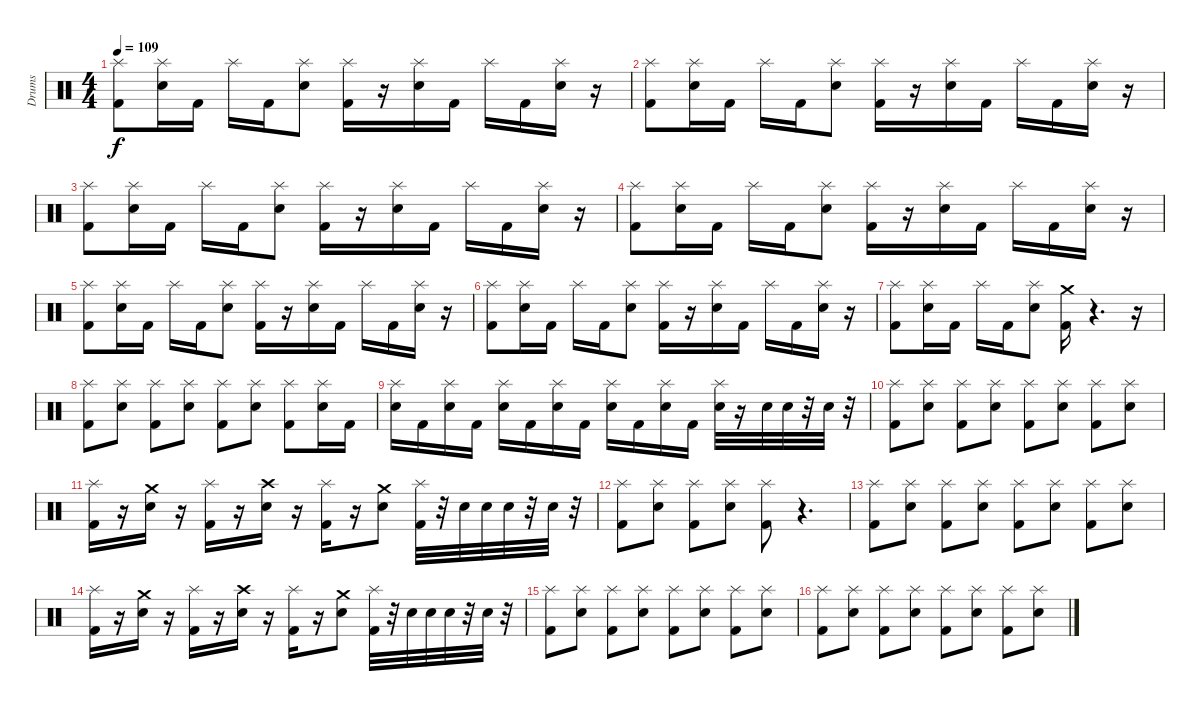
\track ("Drums" "Drums") {instrument percussion}
\staff {score}
\articulation defaults
\ts (4 4)
\tempo 109
\clef neutral
\ks c
("Splash (hit)" "Kick (hit) 2").8{dy f} ("Splash (hit)" "Electric Snare (hit)").16 "Kick (hit) 2".16 "Splash (hit)".16 "Kick (hit) 2".16 ("Splash (hit)" "Electric Snare (hit)").8 ("Splash (hit)" "Kick (hit) 2").16 r.16 ("Splash (hit)" "Electric Snare (hit)").16 "Kick (hit) 2".16 "Splash (hit)".16 "Kick (hit) 2".16 ("Splash (hit)" "Electric Snare (hit)").16 r.16 |
("Splash (hit)" "Kick (hit) 2").8 ("Splash (hit)" "Electric Snare (hit)").16 "Kick (hit) 2".16 "Splash (hit)".16 "Kick (hit) 2".16 ("Splash (hit)" "Electric Snare (hit)").8 ("Splash (hit)" "Kick (hit) 2").16 r.16 ("Splash (hit)" "Electric Snare (hit)").16 "Kick (hit) 2".16 "Splash (hit)".16 "Kick (hit) 2".16 ("Splash (hit)" "Electric Snare (hit)").16 r.16 |
("Splash (hit)" "Kick (hit) 2").8 ("Splash (hit)" "Electric Snare (hit)").16 "Kick (hit) 2".16 "Splash (hit)".16 "Kick (hit) 2".16 ("Splash (hit)" "Electric Snare (hit)").8 ("Splash (hit)" "Kick (hit) 2").16 r.16 ("Splash (hit)" "Electric Snare (hit)").16 "Kick (hit) 2".16 "Splash (hit)".16 "Kick (hit) 2".16 ("Splash (hit)" "Electric Snare (hit)").16 r.16 |
("Splash (hit)" "Kick (hit) 2").8 ("Splash (hit)" "Electric Snare (hit)").16 "Kick (hit) 2".16 "Splash (hit)".16 "Kick (hit) 2".16 ("Splash (hit)" "Electric Snare (hit)").8 ("Splash (hit)" "Kick (hit) 2").16 r.16 ("Splash (hit)" "Electric Snare (hit)").16 "Kick (hit) 2".16 "Splash (hit)".16 "Kick (hit) 2".16 ("Splash (hit)" "Electric Snare (hit)").16 r.16 |
("Splash (hit)" "Kick (hit) 2").8 ("Splash (hit)" "Electric Snare (hit)").16 "Kick (hit) 2".16 "Splash (hit)".16 "Kick (hit) 2".16 ("Splash (hit)" "Electric Snare (hit)").8 ("Splash (hit)" "Kick (hit) 2").16 r.16 ("Splash (hit)" "Electric Snare (hit)").16 "Kick (hit) 2".16 "Splash (hit)".16 "Kick (hit) 2".16 ("Splash (hit)" "Electric Snare (hit)").16 r.16 |
("Splash (hit)" "Kick (hit) 2").8 ("Splash (hit)" "Electric Snare (hit)").16 "Kick (hit) 2".16 "Splash (hit)".16 "Kick (hit) 2".16 ("Splash (hit)" "Electric Snare (hit)").8 ("Splash (hit)" "Kick (hit) 2").16 r.16 ("Splash (hit)" "Electric Snare (hit)").16 "Kick (hit) 2".16 "Splash (hit)".16 "Kick (hit) 2".16 ("Splash (hit)" "Electric Snare (hit)").16 r.16 |
("Splash (hit)" "Kick (hit) 2").8 ("Splash (hit)" "Electric Snare (hit)").16 "Kick (hit) 2".16 "Splash (hit)".16 "Kick (hit) 2".16 ("Splash (hit)" "Electric Snare (hit)").8 ("Crash medium (hit)" "Kick (hit) 2").16 r.4{d} r.16 |
("Splash (hit)" "Kick (hit) 2").8 ("Splash (hit)" "Electric Snare (hit)").8 ("Splash (hit)" "Kick (hit) 2").8 ("Splash (hit)" "Electric Snare (hit)").8 ("Splash (hit)" "Kick (hit) 2").8 ("Splash (hit)" "Electric Snare (hit)").8 ("Splash (hit)" "Kick (hit) 2").8 ("Splash (hit)" "Electric Snare (hit)").16 "Kick (hit) 2".16 |
("Splash (hit)" "Electric Snare (hit)").16 "Kick (hit) 2".16 ("Splash (hit)" "Electric Snare (hit)").16 "Kick (hit) 2".16 ("Splash (hit)" "Electric Snare (hit)").16 "Kick (hit) 2".16 ("Splash (hit)" "Electric Snare (hit)").16 "Kick (hit) 2".16 ("Splash (hit)" "Electric Snare (hit)").16 "Kick (hit) 2".16 ("Splash (hit)" "Electric Snare (hit)").16 "Kick (hit) 2".16 ("Splash (hit)" "Electric Snare (hit)").32 r.16 "Electric Snare (hit)".32 "Electric Snare (hit)".32 r.32 "Electric Snare (hit)".32 r.32 |
("Splash (hit)" "Kick (hit) 2").8 ("Splash (hit)" "Electric Snare (hit)").8 ("Splash (hit)" "Kick (hit) 2").8 ("Splash (hit)" "Electric Snare (hit)").8 ("Splash (hit)" "Kick (hit) 2").8 ("Splash (hit)" "Electric Snare (hit)").8 ("Splash (hit)" "Kick (hit) 2").8 ("Splash (hit)" "Electric Snare (hit)").8 |
("Kick (hit) 2" "Splash (hit)").16 r.16 ("Electric Snare (hit)" "Crash medium (hit)").16 r.16 ("Kick (hit) 2" "Splash (hit)").16 r.16 ("Electric Snare (hit)" "Crash high (hit)").16 r.16 ("Kick (hit) 2" "Splash (hit)").16 r.16 ("Electric Snare (hit)" "Crash medium (hit)").8 ("Splash (hit)" "Kick (hit) 2").32 r.32 "Electric Snare (hit)".32 "Electric Snare (hit)".32 "Electric Snare (hit)".32 r.32 "Electric Snare (hit)".32 r.32 |
("Splash (hit)" "Kick (hit) 2").8 ("Splash (hit)" "Electric Snare (hit)").8 ("Splash (hit)" "Kick (hit) 2").8 ("Splash (hit)" "Electric Snare (hit)").8 ("Splash (hit)" "Kick (hit) 2").8 r.4{d} |
("Splash (hit)" "Kick (hit) 2").8 ("Splash (hit)" "Electric Snare (hit)").8 ("Splash (hit)" "Kick (hit) 2").8 ("Splash (hit)" "Electric Snare (hit)").8 ("Splash (hit)" "Kick (hit) 2").8 ("Splash (hit)" "Electric Snare (hit)").8 ("Splash (hit)" "Kick (hit) 2").8 ("Splash (hit)" "Electric Snare (hit)").8 |
("Kick (hit) 2" "Splash (hit)").16 r.16 ("Electric Snare (hit)" "Crash medium (hit)").16 r.16 ("Kick (hit) 2" "Splash (hit)").16 r.16 ("Electric Snare (hit)" "Crash high (hit)").16 r.16 ("Kick (hit) 2" "Splash (hit)").16 r.16 ("Electric Snare (hit)" "Crash medium (hit)").8 ("Splash (hit)" "Kick (hit) 2").32 r.32 "Electric Snare (hit)".32 "Electric Snare (hit)".32 "Electric Snare (hit)".32 r.32 "Electric Snare (hit)".32 r.32 |
("Splash (hit)" "Kick (hit) 2").8 ("Splash (hit)" "Electric Snare (hit)").8 ("Splash (hit)" "Kick (hit) 2").8 ("Splash (hit)" "Electric Snare (hit)").8 ("Splash (hit)" "Kick (hit) 2").8 ("Splash (hit)" "Electric Snare (hit)").8 ("Splash (hit)" "Kick (hit) 2").8 ("Splash (hit)" "Electric Snare (hit)").8 |
("Splash (hit)" "Kick (hit) 2").8 ("Splash (hit)" "Electric Snare (hit)").8 ("Splash (hit)" "Kick (hit) 2").8 ("Splash (hit)" "Electric Snare (hit)").8 ("Splash (hit)" "Kick (hit) 2").8 ("Splash (hit)" "Electric Snare (hit)").8 ("Splash (hit)" "Kick (hit) 2").8 ("Splash (hit)" "Electric Snare (hit)").8
